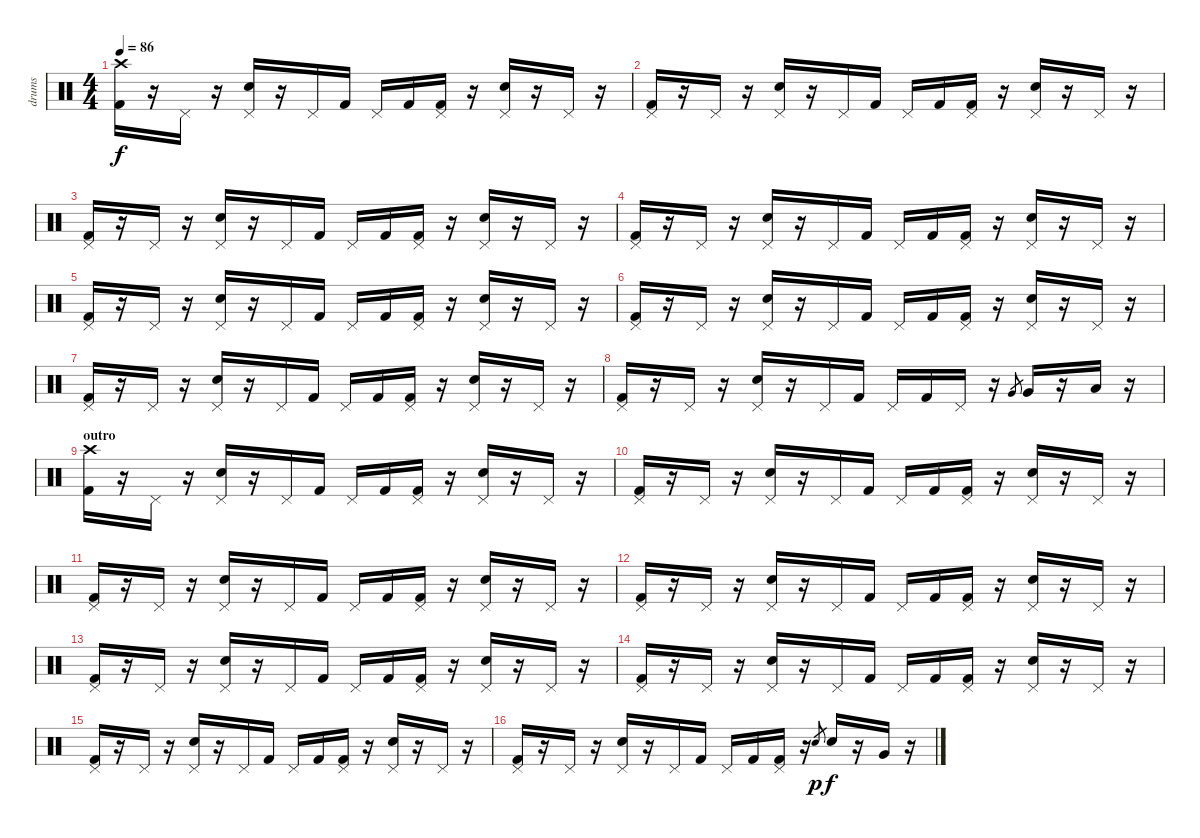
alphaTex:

\track ("drums" "drums") {instrument percussion}
\staff {score}
\articulation defaults
\ts (4 4)
\tempo 86
\clef neutral
\ks c
("Kick (hit) 2" "Crash high (hit)").16{dy f} r.16 "Pedal Hi-Hat (hit)".16 r.16 ("Electric Snare (hit)" "Pedal Hi-Hat (hit)").16 r.16 "Pedal Hi-Hat (hit)".16 "Kick (hit) 2".16 "Pedal Hi-Hat (hit)".16 "Kick (hit) 2".16 ("Kick (hit) 2" "Pedal Hi-Hat (hit)").16 r.16 ("Electric Snare (hit)" "Pedal Hi-Hat (hit)").16 r.16 "Pedal Hi-Hat (hit)".16 r.16 |
("Kick (hit) 2" "Pedal Hi-Hat (hit)").16 r.16 "Pedal Hi-Hat (hit)".16 r.16 ("Electric Snare (hit)" "Pedal Hi-Hat (hit)").16 r.16 "Pedal Hi-Hat (hit)".16 "Kick (hit) 2".16 "Pedal Hi-Hat (hit)".16 "Kick (hit) 2".16 ("Kick (hit) 2" "Pedal Hi-Hat (hit)").16 r.16 ("Electric Snare (hit)" "Pedal Hi-Hat (hit)").16 r.16 "Pedal Hi-Hat (hit)".16 r.16 |
("Kick (hit) 2" "Pedal Hi-Hat (hit)").16 r.16 "Pedal Hi-Hat (hit)".16 r.16 ("Electric Snare (hit)" "Pedal Hi-Hat (hit)").16 r.16 "Pedal Hi-Hat (hit)".16 "Kick (hit) 2".16 "Pedal Hi-Hat (hit)".16 "Kick (hit) 2".16 ("Kick (hit) 2" "Pedal Hi-Hat (hit)").16 r.16 ("Electric Snare (hit)" "Pedal Hi-Hat (hit)").16 r.16 "Pedal Hi-Hat (hit)".16 r.16 |
("Kick (hit) 2" "Pedal Hi-Hat (hit)").16 r.16 "Pedal Hi-Hat (hit)".16 r.16 ("Electric Snare (hit)" "Pedal Hi-Hat (hit)").16 r.16 "Pedal Hi-Hat (hit)".16 "Kick (hit) 2".16 "Pedal Hi-Hat (hit)".16 "Kick (hit) 2".16 ("Kick (hit) 2" "Pedal Hi-Hat (hit)").16 r.16 ("Electric Snare (hit)" "Pedal Hi-Hat (hit)").16 r.16 "Pedal Hi-Hat (hit)".16 r.16 |
("Kick (hit) 2" "Pedal Hi-Hat (hit)").16 r.16 "Pedal Hi-Hat (hit)".16 r.16 ("Electric Snare (hit)" "Pedal Hi-Hat (hit)").16 r.16 "Pedal Hi-Hat (hit)".16 "Kick (hit) 2".16 "Pedal Hi-Hat (hit)".16 "Kick (hit) 2".16 ("Kick (hit) 2" "Pedal Hi-Hat (hit)").16 r.16 ("Electric Snare (hit)" "Pedal Hi-Hat (hit)").16 r.16 "Pedal Hi-Hat (hit)".16 r.16 |
("Kick (hit) 2" "Pedal Hi-Hat (hit)").16 r.16 "Pedal Hi-Hat (hit)".16 r.16 ("Electric Snare (hit)" "Pedal Hi-Hat (hit)").16 r.16 "Pedal Hi-Hat (hit)".16 "Kick (hit) 2".16 "Pedal Hi-Hat (hit)".16 "Kick (hit) 2".16 ("Kick (hit) 2" "Pedal Hi-Hat (hit)").16 r.16 ("Electric Snare (hit)" "Pedal Hi-Hat (hit)").16 r.16 "Pedal Hi-Hat (hit)".16 r.16 |
("Kick (hit) 2" "Pedal Hi-Hat (hit)").16 r.16 "Pedal Hi-Hat (hit)".16 r.16 ("Electric Snare (hit)" "Pedal Hi-Hat (hit)").16 r.16 "Pedal Hi-Hat (hit)".16 "Kick (hit) 2".16 "Pedal Hi-Hat (hit)".16 "Kick (hit) 2".16 ("Kick (hit) 2" "Pedal Hi-Hat (hit)").16 r.16 ("Electric Snare (hit)" "Pedal Hi-Hat (hit)").16 r.16 "Pedal Hi-Hat (hit)".16 r.16 |
("Kick (hit) 2" "Pedal Hi-Hat (hit)").16 r.16 "Pedal Hi-Hat (hit)".16 r.16 ("Electric Snare (hit)" "Pedal Hi-Hat (hit)").16 r.16 "Pedal Hi-Hat (hit)".16 "Kick (hit) 2".16 "Pedal Hi-Hat (hit)".16 "Kick (hit) 2".16 "Pedal Hi-Hat (hit)".16 r.16 "Very Low Tom (hit)".8{gr} "Very Low Tom (hit)".16 r.16 "Low Tom (hit)".16 r.16 |
\section ("" "outro")
("Kick (hit) 2" "Crash high (hit)").16 r.16 "Pedal Hi-Hat (hit)".16 r.16 ("Electric Snare (hit)" "Pedal Hi-Hat (hit)").16 r.16 "Pedal Hi-Hat (hit)".16 "Kick (hit) 2".16 "Pedal Hi-Hat (hit)".16 "Kick (hit) 2".16 ("Kick (hit) 2" "Pedal Hi-Hat (hit)").16 r.16 ("Electric Snare (hit)" "Pedal Hi-Hat (hit)").16 r.16 "Pedal Hi-Hat (hit)".16 r.16 |
("Kick (hit) 2" "Pedal Hi-Hat (hit)").16 r.16 "Pedal Hi-Hat (hit)".16 r.16 ("Electric Snare (hit)" "Pedal Hi-Hat (hit)").16 r.16 "Pedal Hi-Hat (hit)".16 "Kick (hit) 2".16 "Pedal Hi-Hat (hit)".16 "Kick (hit) 2".16 ("Kick (hit) 2" "Pedal Hi-Hat (hit)").16 r.16 ("Electric Snare (hit)" "Pedal Hi-Hat (hit)").16 r.16 "Pedal Hi-Hat (hit)".16 r.16 |
("Kick (hit) 2" "Pedal Hi-Hat (hit)").16 r.16 "Pedal Hi-Hat (hit)".16 r.16 ("Electric Snare (hit)" "Pedal Hi-Hat (hit)").16 r.16 "Pedal Hi-Hat (hit)".16 "Kick (hit) 2".16 "Pedal Hi-Hat (hit)".16 "Kick (hit) 2".16 ("Kick (hit) 2" "Pedal Hi-Hat (hit)").16 r.16 ("Electric Snare (hit)" "Pedal Hi-Hat (hit)").16 r.16 "Pedal Hi-Hat (hit)".16 r.16 |
("Kick (hit) 2" "Pedal Hi-Hat (hit)").16 r.16 "Pedal Hi-Hat (hit)".16 r.16 ("Electric Snare (hit)" "Pedal Hi-Hat (hit)").16 r.16 "Pedal Hi-Hat (hit)".16 "Kick (hit) 2".16 "Pedal Hi-Hat (hit)".16 "Kick (hit) 2".16 ("Kick (hit) 2" "Pedal Hi-Hat (hit)").16 r.16 ("Electric Snare (hit)" "Pedal Hi-Hat (hit)").16 r.16 "Pedal Hi-Hat (hit)".16 r.16 |
("Kick (hit) 2" "Pedal Hi-Hat (hit)").16 r.16 "Pedal Hi-Hat (hit)".16 r.16 ("Electric Snare (hit)" "Pedal Hi-Hat (hit)").16 r.16 "Pedal Hi-Hat (hit)".16 "Kick (hit) 2".16 "Pedal Hi-Hat (hit)".16 "Kick (hit) 2".16 ("Kick (hit) 2" "Pedal Hi-Hat (hit)").16 r.16 ("Electric Snare (hit)" "Pedal Hi-Hat (hit)").16 r.16 "Pedal Hi-Hat (hit)".16 r.16 |
("Kick (hit) 2" "Pedal Hi-Hat (hit)").16 r.16 "Pedal Hi-Hat (hit)".16 r.16 ("Electric Snare (hit)" "Pedal Hi-Hat (hit)").16 r.16 "Pedal Hi-Hat (hit)".16 "Kick (hit) 2".16 "Pedal Hi-Hat (hit)".16 "Kick (hit) 2".16 ("Kick (hit) 2" "Pedal Hi-Hat (hit)").16 r.16 ("Electric Snare (hit)" "Pedal Hi-Hat (hit)").16 r.16 "Pedal Hi-Hat (hit)".16 r.16 |
("Kick (hit) 2" "Pedal Hi-Hat (hit)").16 r.16 "Pedal Hi-Hat (hit)".16 r.16 ("Electric Snare (hit)" "Pedal Hi-Hat (hit)").16 r.16 "Pedal Hi-Hat (hit)".16 "Kick (hit) 2".16 "Pedal Hi-Hat (hit)".16 "Kick (hit) 2".16 ("Kick (hit) 2" "Pedal Hi-Hat (hit)").16 r.16 ("Electric Snare (hit)" "Pedal Hi-Hat (hit)").16 r.16 "Pedal Hi-Hat (hit)".16 r.16 |
("Kick (hit) 2" "Pedal Hi-Hat (hit)").16 r.16 "Pedal Hi-Hat (hit)".16 r.16 ("Electric Snare (hit)" "Pedal Hi-Hat (hit)").16 r.16 "Pedal Hi-Hat (hit)".16 "Kick (hit) 2".16 "Pedal Hi-Hat (hit)".16 "Kick (hit) 2".16 ("Kick (hit) 2" "Pedal Hi-Hat (hit)").16 r.16 "Electric Snare (hit)".8{gr dy p} "Electric Snare (hit)".16{dy f} r.16 "Very Low Tom (hit)".16 r.16
